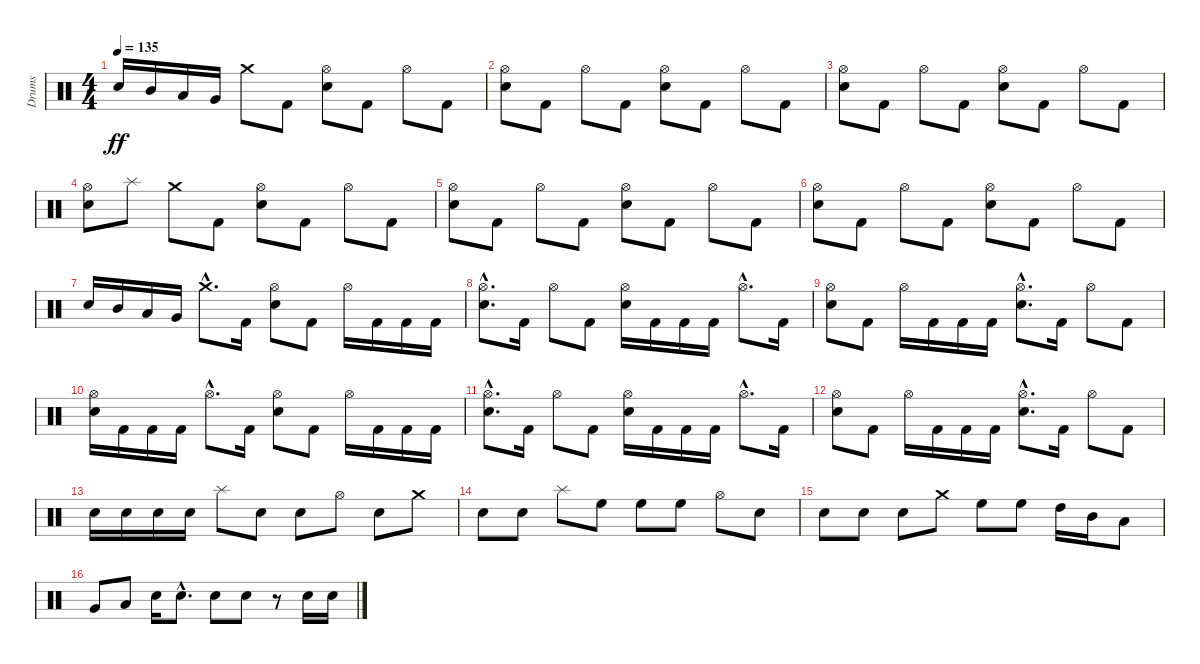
\track ("Drums" "Drums") {instrument percussion}
\staff {score}
\articulation defaults
\ts (4 4)
\tempo 135
\clef neutral
\ks c "Electric Snare (hit)".16{dy ff} "Mid Tom (hit)".16 "Low Tom (hit)".16 "Very Low Tom (hit)".16 "Crash medium (hit)".8 "Kick (hit) 2".8
("Electric Snare (hit)" "Hi-Hat (open)").8 "Kick (hit) 2".8 "Hi-Hat (open)".8 "Kick (hit) 2".8 |
("Electric Snare (hit)" "Hi-Hat (open)").8 "Kick (hit) 2".8 "Hi-Hat (open)".8 "Kick (hit) 2".8 ("Electric Snare (hit)" "Hi-Hat (open)").8 "Kick (hit) 2".8 "Hi-Hat (open)".8 "Kick (hit) 2".8 |
("Electric Snare (hit)" "Hi-Hat (open)").8 "Kick (hit) 2".8 "Hi-Hat (open)".8 "Kick (hit) 2".8 ("Electric Snare (hit)" "Hi-Hat (open)").8 "Kick (hit) 2".8 "Hi-Hat (open)".8 "Kick (hit) 2".8 |
("Electric Snare (hit)" "Hi-Hat (open)").8 "Splash (hit)".8 "Crash medium (hit)".8 "Kick (hit) 2".8 ("Electric Snare (hit)" "Hi-Hat (open)").8 "Kick (hit) 2".8 "Hi-Hat (open)".8 "Kick (hit) 2".8 |
("Electric Snare (hit)" "Hi-Hat (open)").8 "Kick (hit) 2".8 "Hi-Hat (open)".8 "Kick (hit) 2".8 ("Electric Snare (hit)" "Hi-Hat (open)").8 "Kick (hit) 2".8 "Hi-Hat (open)".8 "Kick (hit) 2".8 |
("Electric Snare (hit)" "Hi-Hat (open)").8 "Kick (hit) 2".8 "Hi-Hat (open)".8 "Kick (hit) 2".8 ("Electric Snare (hit)" "Hi-Hat (open)").8 "Kick (hit) 2".8 "Hi-Hat (open)".8 "Kick (hit) 2".8 |
"Electric Snare (hit)".16 "Mid Tom (hit)".16 "Low Tom (hit)".16 "Very Low Tom (hit)".16 "Crash medium (hit)"{hac}.8{d} "Kick (hit) 2".16 ("Electric Snare (hit)" "Hi-Hat (open)").8 "Kick (hit) 2".8 "Hi-Hat (open)".16 "Kick (hit) 2".16 "Kick (hit) 2".16 "Kick (hit) 2".16 |
("Electric Snare (hit)"{hac} "Hi-Hat (open)"{hac}).8{d} "Kick (hit) 2".16 "Hi-Hat (open)".8 "Kick (hit) 2".8 ("Electric Snare (hit)" "Hi-Hat (open)").16 "Kick (hit) 2".16 "Kick (hit) 2".16 "Kick (hit) 2".16 "Hi-Hat (open)"{hac}.8{d} "Kick (hit) 2".16 |
("Electric Snare (hit)" "Hi-Hat (open)").8 "Kick (hit) 2".8 "Hi-Hat (open)".16 "Kick (hit) 2".16 "Kick (hit) 2".16 "Kick (hit) 2".16 ("Electric Snare (hit)"{hac} "Hi-Hat (open)"{hac}).8{d} "Kick (hit) 2".16 "Hi-Hat (open)".8 "Kick (hit) 2".8 |
("Electric Snare (hit)" "Hi-Hat (open)").16 "Kick (hit) 2".16 "Kick (hit) 2".16 "Kick (hit) 2".16 "Hi-Hat (open)"{hac}.8{d} "Kick (hit) 2".16 ("Electric Snare (hit)" "Hi-Hat (open)").8 "Kick (hit) 2".8 "Hi-Hat (open)".16 "Kick (hit) 2".16 "Kick (hit) 2".16 "Kick (hit) 2".16 |
("Electric Snare (hit)"{hac} "Hi-Hat (open)"{hac}).8{d} "Kick (hit) 2".16 "Hi-Hat (open)".8 "Kick (hit) 2".8 ("Electric Snare (hit)" "Hi-Hat (open)").16 "Kick (hit) 2".16 "Kick (hit) 2".16 "Kick (hit) 2".16 "Hi-Hat (open)"{hac}.8{d} "Kick (hit) 2".16 |
("Electric Snare (hit)" "Hi-Hat (open)").8 "Kick (hit) 2".8 "Hi-Hat (open)".16 "Kick (hit) 2".16 "Kick (hit) 2".16 "Kick (hit) 2".16 ("Electric Snare (hit)"{hac} "Hi-Hat (open)"{hac}).8{d} "Kick (hit) 2".16 "Hi-Hat (open)".8 "Kick (hit) 2".8 |
"Electric Snare (hit)".16 "Electric Snare (hit)".16 "Electric Snare (hit)".16 "Electric Snare (hit)".16 "Splash (hit)".8 "Electric Snare (hit)".8 "Electric Snare (hit)".8 "Hi-Hat (open)".8 "Electric Snare (hit)".8 "Crash medium (hit)".8 |
"Electric Snare (hit)".8 "Electric Snare (hit)".8 "Splash (hit)".8 "High Floor Tom (hit)".8 "High Floor Tom (hit)".8 "High Floor Tom (hit)".8 "Hi-Hat (open)".8 "Electric Snare (hit)".8 |
"Electric Snare (hit)".8 "Electric Snare (hit)".8 "Electric Snare (hit)".8 "Crash medium (hit)".8 "High Floor Tom (hit)".8 "High Floor Tom (hit)".8 "High Tom (hit)".16 "Mid Tom (hit)".16 "Low Tom (hit)".8 |
"Very Low Tom (hit)".8 "Low Floor Tom (hit)".8 "Electric Snare (hit)".16 "Electric Snare (hit)"{hac}.8{d} "Electric Snare (hit)".8 "Electric Snare (hit)".8 r.8 "Electric Snare (hit)".16 "Electric Snare (hit)".16
